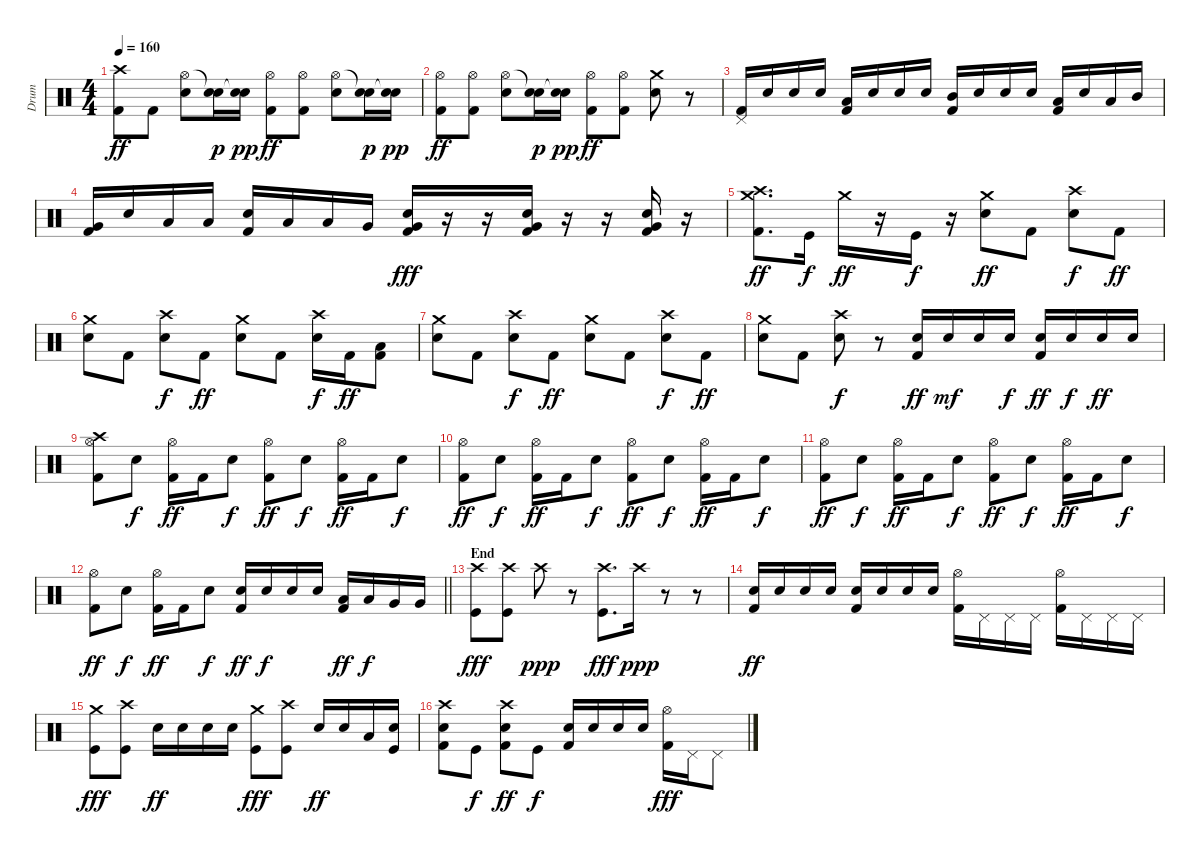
\track ("Drum" "Drum") {instrument percussion}
\staff {score}
\articulation defaults
\ts (4 4)
\tempo 160
\clef neutral
\ks c
("Crash high (hit)" "Kick (hit) 2").8{dy ff} "Kick (hit) 2".8 ("Electric Snare (hit)" "Hi-Hat (open)").8 ("Electric Snare (hit)" "Snare (hit)"{t}).16{dy p} ("Electric Snare (hit)" "Snare (hit)"{t}).16{dy pp} ("Hi-Hat (open)" "Kick (hit) 2").8{dy ff} ("Hi-Hat (open)" "Kick (hit) 2").8 ("Electric Snare (hit)" "Hi-Hat (open)").8 ("Electric Snare (hit)" "Snare (hit)"{t}).16{dy p} ("Electric Snare (hit)" "Snare (hit)"{t}).16{dy pp} |
("Hi-Hat (open)" "Kick (hit) 2").8{dy ff} ("Hi-Hat (open)" "Kick (hit) 2").8 ("Electric Snare (hit)" "Hi-Hat (open)").8 ("Electric Snare (hit)" "Snare (hit)"{t}).16{dy p} ("Electric Snare (hit)" "Snare (hit)"{t}).16{dy pp} ("Hi-Hat (open)" "Kick (hit) 2").8{dy ff} ("Hi-Hat (open)" "Kick (hit) 2").8 ("Crash medium (hit)" "Electric Snare (hit)").8 r.8 |
("Pedal Hi-Hat (hit)" "Kick (hit) 2").16 "Electric Snare (hit)".16 "Electric Snare (hit)".16 "Electric Snare (hit)".16 ("Low Tom (hit)" "Kick (hit) 2").16 "Electric Snare (hit)".16 "Electric Snare (hit)".16 "Electric Snare (hit)".16 ("Mid Tom (hit)" "Kick (hit) 2").16 "Electric Snare (hit)".16 "Electric Snare (hit)".16 "Electric Snare (hit)".16 ("Low Tom (hit)" "Kick (hit) 2").16 "Electric Snare (hit)".16 "Low Tom (hit)".16 "Mid Tom (hit)".16 |
("Very Low Tom (hit)" "Kick (hit) 2").16 "Electric Snare (hit)".16 "Low Tom (hit)".16 "Low Tom (hit)".16 ("Electric Snare (hit)" "Kick (hit) 2").16 "Low Tom (hit)".16 "Low Tom (hit)".16 "Very Low Tom (hit)".16 ("Very Low Tom (hit)" "Electric Snare (hit)" "Kick (hit) 2").16{dy fff} r.16 r.16 ("Very Low Tom (hit)" "Electric Snare (hit)" "Kick (hit) 2").16 r.16 r.16 ("Very Low Tom (hit)" "Electric Snare (hit)" "Kick (hit) 2").16 r.16 |
("Crash medium (hit)" "Crash high (hit)" "Kick (hit) 2").8{d dy ff} "Kick (hit)".16{dy f} "Crash medium (hit)".16{dy ff} r.16 "Kick (hit)".16{dy f} r.16 ("Crash medium (hit)" "Electric Snare (hit)").8{dy ff} "Kick (hit) 2".8 ("Crash high (hit)" "Electric Snare (hit)").8{dy f} "Kick (hit) 2".8{dy ff} |
("Crash medium (hit)" "Electric Snare (hit)").8 "Kick (hit) 2".8 ("Crash high (hit)" "Electric Snare (hit)").8{dy f} "Kick (hit) 2".8{dy ff} ("Crash medium (hit)" "Electric Snare (hit)").8 "Kick (hit) 2".8 ("Crash high (hit)" "Electric Snare (hit)").16{dy f} "Kick (hit) 2".16{dy ff} ("Low Tom (hit)" "Kick (hit) 2").8 |
("Crash medium (hit)" "Electric Snare (hit)").8 "Kick (hit) 2".8 ("Crash high (hit)" "Electric Snare (hit)").8{dy f} "Kick (hit) 2".8{dy ff} ("Crash medium (hit)" "Electric Snare (hit)").8 "Kick (hit) 2".8 ("Crash high (hit)" "Electric Snare (hit)").8{dy f} "Kick (hit) 2".8{dy ff} |
("Crash medium (hit)" "Electric Snare (hit)").8 "Kick (hit) 2".8 ("Crash high (hit)" "Electric Snare (hit)").8{dy f} r.8 ("Electric Snare (hit)" "Kick (hit) 2").16{dy ff} "Electric Snare (hit)".16{dy mf} "Electric Snare (hit)".16 "Electric Snare (hit)".16{dy f} ("Electric Snare (hit)" "Kick (hit) 2").16{dy ff} "Electric Snare (hit)".16{dy f} "Electric Snare (hit)".16{dy ff} "Electric Snare (hit)".16 |
("Crash high (hit)" "Hi-Hat (open)" "Kick (hit) 2").8 "Electric Snare (hit)".8{dy f} ("Hi-Hat (open)" "Kick (hit) 2").16{dy ff} "Kick (hit) 2".16 "Electric Snare (hit)".8{dy f} ("Hi-Hat (open)" "Kick (hit) 2").8{dy ff} "Electric Snare (hit)".8{dy f} ("Hi-Hat (open)" "Kick (hit) 2").16{dy ff} "Kick (hit) 2".16 "Electric Snare (hit)".8{dy f} |
("Hi-Hat (open)" "Kick (hit) 2").8{dy ff} "Electric Snare (hit)".8{dy f} ("Hi-Hat (open)" "Kick (hit) 2").16{dy ff} "Kick (hit) 2".16 "Electric Snare (hit)".8{dy f} ("Hi-Hat (open)" "Kick (hit) 2").8{dy ff} "Electric Snare (hit)".8{dy f} ("Hi-Hat (open)" "Kick (hit) 2").16{dy ff} "Kick (hit) 2".16 "Electric Snare (hit)".8{dy f} |
("Hi-Hat (open)" "Kick (hit) 2").8{dy ff} "Electric Snare (hit)".8{dy f} ("Hi-Hat (open)" "Kick (hit) 2").16{dy ff} "Kick (hit) 2".16 "Electric Snare (hit)".8{dy f} ("Hi-Hat (open)" "Kick (hit) 2").8{dy ff} "Electric Snare (hit)".8{dy f} ("Hi-Hat (open)" "Kick (hit) 2").16{dy ff} "Kick (hit) 2".16 "Electric Snare (hit)".8{dy f} |
\barLineRight lightlight
("Hi-Hat (open)" "Kick (hit) 2").8{dy ff} "Electric Snare (hit)".8{dy f} ("Hi-Hat (open)" "Kick (hit) 2").16{dy ff} "Kick (hit) 2".16 "Electric Snare (hit)".8{dy f} ("Electric Snare (hit)" "Kick (hit) 2").16{dy ff} "Electric Snare (hit)".16{dy f} "Electric Snare (hit)".16 "Electric Snare (hit)".16 ("Low Tom (hit)" "Kick (hit) 2").16{dy ff} "Low Tom (hit)".16{dy f} "Very Low Tom (hit)".16 "Very Low Tom (hit)".16 |
\section ("" "End")
("Crash high (hit)" "Kick (hit)").8{dy fff} ("Crash high (hit)" "Kick (hit)").8 "Crash high (hit)".8{dy ppp} r.8 ("Crash high (hit)" "Kick (hit)").8{d dy fff} "Crash high (hit)".16{dy ppp} r.8 r.8 |
("Electric Snare (hit)" "Kick (hit) 2").16{dy ff} "Electric Snare (hit)".16 "Electric Snare (hit)".16 "Electric Snare (hit)".16 ("Electric Snare (hit)" "Kick (hit) 2").16 "Electric Snare (hit)".16 "Electric Snare (hit)".16 "Electric Snare (hit)".16 ("Hi-Hat (open)" "Kick (hit) 2").16 "Pedal Hi-Hat (hit)".16 "Pedal Hi-Hat (hit)".16 "Pedal Hi-Hat (hit)".16 ("Hi-Hat (open)" "Kick (hit) 2").16 "Pedal Hi-Hat (hit)".16 "Pedal Hi-Hat (hit)".16 "Pedal Hi-Hat (hit)".16 |
("Crash medium (hit)" "Kick (hit)").8{dy fff} ("Crash high (hit)" "Kick (hit)").8 "Electric Snare (hit)".16{dy ff} "Electric Snare (hit)".16 "Electric Snare (hit)".16 "Electric Snare (hit)".16 ("Crash medium (hit)" "Kick (hit)").8{dy fff} ("Crash high (hit)" "Kick (hit)").8 "Electric Snare (hit)".16{dy ff} "Electric Snare (hit)".16 "Low Tom (hit)".16 ("Electric Snare (hit)" "Kick (hit)").16 |
("Crash high (hit)" "Electric Snare (hit)" "Kick (hit) 2").8 "Kick (hit)".8{dy f} ("Crash high (hit)" "Electric Snare (hit)" "Kick (hit) 2").8{dy ff} "Kick (hit)".8{dy f} ("Electric Snare (hit)" "Kick (hit) 2").16 "Electric Snare (hit)".16 "Electric Snare (hit)".16 "Electric Snare (hit)".16 ("Hi-Hat (open)" "Kick (hit) 2").16{dy fff} "Pedal Hi-Hat (hit)".16 "Pedal Hi-Hat (hit)".8
